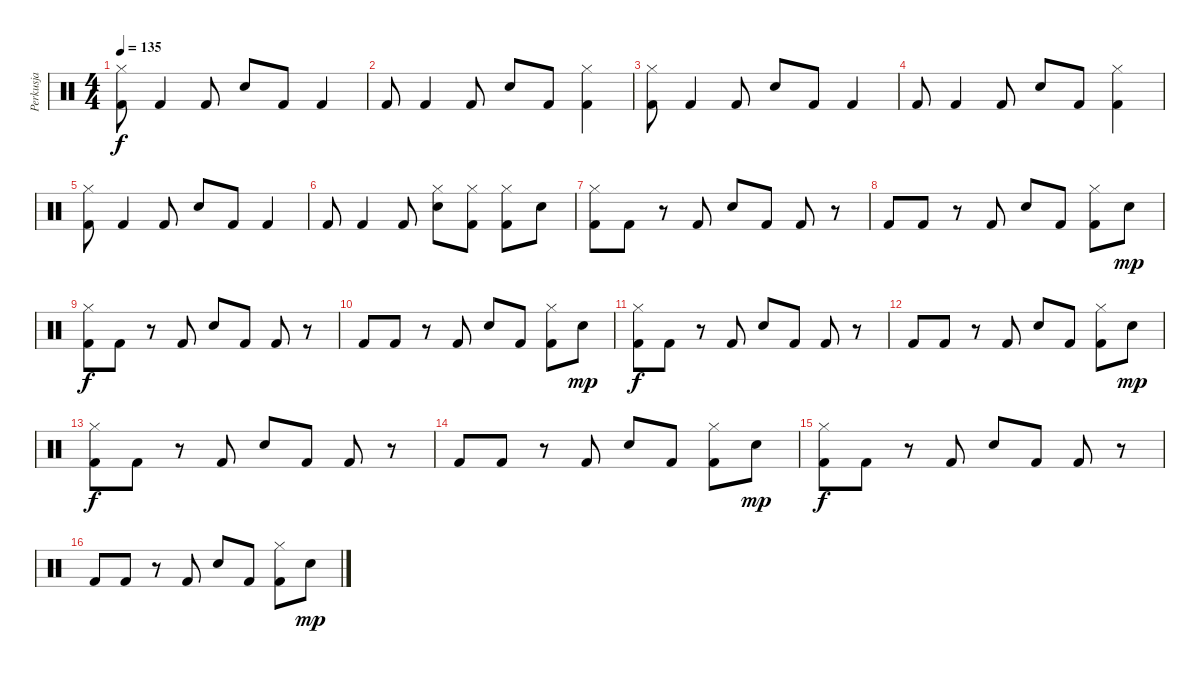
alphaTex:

\track ("Perkusja" "Perkusja") {instrument percussion}
\staff {score}
\articulation defaults
\ts (4 4)
\tempo 135
\clef neutral
\ks c
("Hi-Hat (closed)" "Kick (hit) 2").8{dy f} "Kick (hit) 2".4 "Kick (hit) 2".8 "Snare (hit) 2".8 "Kick (hit) 2".8 "Kick (hit) 2".4 |
"Kick (hit) 2".8 "Kick (hit) 2".4 "Kick (hit) 2".8 "Snare (hit) 2".8 "Kick (hit) 2".8 ("Hi-Hat (closed)" "Kick (hit) 2").4 |
("Hi-Hat (closed)" "Kick (hit) 2").8 "Kick (hit) 2".4 "Kick (hit) 2".8 "Snare (hit) 2".8 "Kick (hit) 2".8 "Kick (hit) 2".4 |
"Kick (hit) 2".8 "Kick (hit) 2".4 "Kick (hit) 2".8 "Snare (hit) 2".8 "Kick (hit) 2".8 ("Hi-Hat (closed)" "Kick (hit) 2").4 |
("Hi-Hat (closed)" "Kick (hit) 2").8 "Kick (hit) 2".4 "Kick (hit) 2".8 "Snare (hit) 2".8 "Kick (hit) 2".8 "Kick (hit) 2".4 |
"Kick (hit) 2".8 "Kick (hit) 2".4 "Kick (hit) 2".8 ("Hi-Hat (closed)" "Snare (hit) 2").8 ("Hi-Hat (closed)" "Kick (hit) 2").8 ("Hi-Hat (closed)" "Kick (hit) 2").8 "Snare (hit) 2".8 |
("Hi-Hat (closed)" "Kick (hit) 2").8 "Kick (hit) 2".8 r.8 "Kick (hit) 2".8 "Snare (hit) 2".8 "Kick (hit) 2".8 "Kick (hit) 2".8 r.8 |
"Kick (hit) 2".8 "Kick (hit) 2".8 r.8 "Kick (hit) 2".8 "Snare (hit) 2".8 "Kick (hit) 2".8 ("Hi-Hat (closed)" "Kick (hit) 2").8 "Snare (hit) 2".8{dy mp} |
("Hi-Hat (closed)" "Kick (hit) 2").8{dy f} "Kick (hit) 2".8 r.8 "Kick (hit) 2".8 "Snare (hit) 2".8 "Kick (hit) 2".8 "Kick (hit) 2".8 r.8 |
"Kick (hit) 2".8 "Kick (hit) 2".8 r.8 "Kick (hit) 2".8 "Snare (hit) 2".8 "Kick (hit) 2".8 ("Hi-Hat (closed)" "Kick (hit) 2").8 "Snare (hit) 2".8{dy mp} |
("Hi-Hat (closed)" "Kick (hit) 2").8{dy f} "Kick (hit) 2".8 r.8 "Kick (hit) 2".8 "Snare (hit) 2".8 "Kick (hit) 2".8 "Kick (hit) 2".8 r.8 |
"Kick (hit) 2".8 "Kick (hit) 2".8 r.8 "Kick (hit) 2".8 "Snare (hit) 2".8 "Kick (hit) 2".8 ("Hi-Hat (closed)" "Kick (hit) 2").8 "Snare (hit) 2".8{dy mp} |
("Hi-Hat (closed)" "Kick (hit) 2").8{dy f} "Kick (hit) 2".8 r.8 "Kick (hit) 2".8 "Snare (hit) 2".8 "Kick (hit) 2".8 "Kick (hit) 2".8 r.8 |
"Kick (hit) 2".8 "Kick (hit) 2".8 r.8 "Kick (hit) 2".8 "Snare (hit) 2".8 "Kick (hit) 2".8 ("Hi-Hat (closed)" "Kick (hit) 2").8 "Snare (hit) 2".8{dy mp} |
("Hi-Hat (closed)" "Kick (hit) 2").8{dy f} "Kick (hit) 2".8 r.8 "Kick (hit) 2".8 "Snare (hit) 2".8 "Kick (hit) 2".8 "Kick (hit) 2".8 r.8 |
"Kick (hit) 2".8 "Kick (hit) 2".8 r.8 "Kick (hit) 2".8 "Snare (hit) 2".8 "Kick (hit) 2".8 ("Hi-Hat (closed)" "Kick (hit) 2").8 "Snare (hit) 2".8{dy mp}
